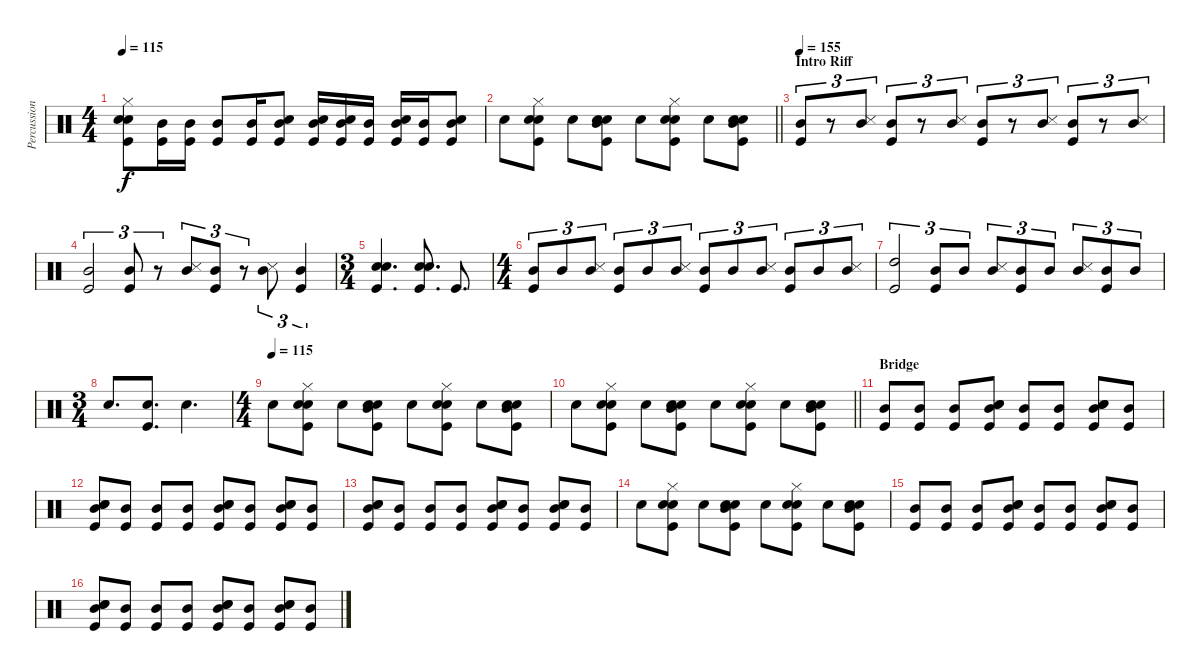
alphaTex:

\track ("Percussions" "Percussion") {instrument percussion}
\staff {score}
\articulation defaults
\ts (4 4)
\tempo 115
\clef neutral
\ks c
("Hi-Hat (closed)" "Snare (hit) 2" "Electric Snare (hit)" "Kick (hit)").8{dy f} ("Mid Tom (hit)" "Kick (hit)").16 ("Mid Tom (hit)" "Kick (hit)").16 ("Mid Tom (hit)" "Kick (hit)").8 ("Mid Tom (hit)" "Kick (hit)").16 ("Snare (hit) 2" "Mid Tom (hit)" "Kick (hit)").8 ("Snare (hit) 2" "Mid Tom (hit)" "Kick (hit)").16 ("Snare (hit) 2" "Mid Tom (hit)" "Kick (hit)").16 ("Mid Tom (hit)" "Kick (hit)").16 ("Snare (hit) 2" "Mid Tom (hit)" "Kick (hit)").16 ("Mid Tom (hit)" "Kick (hit)").16 ("Snare (hit) 2" "Mid Tom (hit)" "Kick (hit)").8 |
\barLineRight lightlight "Snare (hit) 2".8
("Hi-Hat (closed)" "Snare (hit) 2" "Electric Snare (hit)" "Kick (hit)").8 "Snare (hit) 2".8 ("Mid Tom (hit)" "Snare (hit) 2" "Electric Snare (hit)" "Kick (hit)").8 "Snare (hit) 2".8 ("Hi-Hat (closed)" "Snare (hit) 2" "Electric Snare (hit)" "Kick (hit)").8 "Snare (hit) 2".8 ("Mid Tom (hit)" "Snare (hit) 2" "Electric Snare (hit)" "Kick (hit)").8 |
\section ("" "Intro Riff")
\tempo 155
("Mid Tom (hit)" "Kick (hit)").8{tu (3 2)} r.8{tu (3 2)} ("Snare (side stick) 3" "Mid Tom (hit)").8{tu (3 2)} ("Mid Tom (hit)" "Kick (hit)").8{tu (3 2)} r.8{tu (3 2)} ("Snare (side stick) 3" "Mid Tom (hit)").8{tu (3 2)} ("Mid Tom (hit)" "Kick (hit)").8{tu (3 2)} r.8{tu (3 2)} ("Snare (side stick) 3" "Mid Tom (hit)").8{tu (3 2)} ("Mid Tom (hit)" "Kick (hit)").8{tu (3 2)} r.8{tu (3 2)} ("Snare (side stick) 3" "Mid Tom (hit)").8{tu (3 2)} |
("Mid Tom (hit)" "Kick (hit)").2{tu (3 2)} ("Mid Tom (hit)" "Kick (hit)").8{tu (3 2)} r.8{tu (3 2)} ("Snare (side stick) 3" "Mid Tom (hit)").8{tu (3 2)} ("Mid Tom (hit)" "Kick (hit)").8{tu (3 2)} r.8{tu (3 2)} ("Snare (side stick) 3" "Mid Tom (hit)").8{tu (3 2)} ("Mid Tom (hit)" "Kick (hit)").4{tu (3 2)} |
\ts (3 4)
("Electric Snare (hit)" "Snare (hit) 2" "Kick (hit)").4{d} ("Electric Snare (hit)" "Snare (hit) 2" "Kick (hit)").8{d} "Kick (hit)".8{d} |
\ts (4 4)
("Mid Tom (hit)" "Kick (hit)").8{tu (3 2)} "Mid Tom (hit)".8{tu (3 2)} ("Snare (side stick) 3" "Mid Tom (hit)").8{tu (3 2)} ("Mid Tom (hit)" "Kick (hit)").8{tu (3 2)} "Mid Tom (hit)".8{tu (3 2)} ("Snare (side stick) 3" "Mid Tom (hit)").8{tu (3 2)} ("Mid Tom (hit)" "Kick (hit)").8{tu (3 2)} "Mid Tom (hit)".8{tu (3 2)} ("Snare (side stick) 3" "Mid Tom (hit)").8{tu (3 2)} ("Mid Tom (hit)" "Kick (hit)").8{tu (3 2)} "Mid Tom (hit)".8{tu (3 2)} ("Snare (side stick) 3" "Mid Tom (hit)").8{tu (3 2)} |
("High Tom (hit)" "Kick (hit)").2{tu (3 2)} ("Mid Tom (hit)" "Kick (hit)").8{tu (3 2)} "Mid Tom (hit)".8{tu (3 2)} ("Snare (side stick) 3" "Mid Tom (hit)").8{tu (3 2)} ("Mid Tom (hit)" "Kick (hit)").8{tu (3 2)} "Mid Tom (hit)".8{tu (3 2)} ("Snare (side stick) 3" "Mid Tom (hit)").8{tu (3 2)} ("Mid Tom (hit)" "Kick (hit)").8{tu (3 2)} "Mid Tom (hit)".8{tu (3 2)} |
\ts (3 4)
"Snare (hit) 2".8{d} ("Electric Snare (hit)" "Kick (hit)").8{d} "Snare (hit) 2".4{d} |
\ts (4 4)
\tempo (115)
"Snare (hit) 2".8 ("Hi-Hat (closed)" "Snare (hit) 2" "Electric Snare (hit)" "Kick (hit)").8 "Snare (hit) 2".8 ("Mid Tom (hit)" "Snare (hit) 2" "Electric Snare (hit)" "Kick (hit)").8 "Snare (hit) 2".8 ("Hi-Hat (closed)" "Snare (hit) 2" "Electric Snare (hit)" "Kick (hit)").8 "Snare (hit) 2".8 ("Mid Tom (hit)" "Snare (hit) 2" "Electric Snare (hit)" "Kick (hit)").8 |
\barLineRight lightlight "Snare (hit) 2".8
("Hi-Hat (closed)" "Snare (hit) 2" "Electric Snare (hit)" "Kick (hit)").8 "Snare (hit) 2".8 ("Mid Tom (hit)" "Snare (hit) 2" "Electric Snare (hit)" "Kick (hit)").8 "Snare (hit) 2".8 ("Hi-Hat (closed)" "Snare (hit) 2" "Electric Snare (hit)" "Kick (hit)").8 "Snare (hit) 2".8 ("Mid Tom (hit)" "Snare (hit) 2" "Electric Snare (hit)" "Kick (hit)").8 |
\section ("" "Bridge")
("Mid Tom (hit)" "Kick (hit)").8 ("Mid Tom (hit)" "Kick (hit)").8 ("Mid Tom (hit)" "Kick (hit)").8 ("Mid Tom (hit)" "Snare (hit) 2" "Electric Snare (hit)" "Kick (hit)").8 ("Mid Tom (hit)" "Kick (hit)").8 ("Mid Tom (hit)" "Kick (hit)").8 ("Mid Tom (hit)" "Snare (hit) 2" "Electric Snare (hit)" "Kick (hit)").8 ("Mid Tom (hit)" "Kick (hit)").8 |
("Mid Tom (hit)" "Snare (hit) 2" "Electric Snare (hit)" "Kick (hit)").8 ("Mid Tom (hit)" "Kick (hit)").8 ("Mid Tom (hit)" "Kick (hit)").8 ("Mid Tom (hit)" "Kick (hit)").8 ("Mid Tom (hit)" "Snare (hit) 2" "Electric Snare (hit)" "Kick (hit)").8 ("Mid Tom (hit)" "Kick (hit)").8 ("Mid Tom (hit)" "Snare (hit) 2" "Electric Snare (hit)" "Kick (hit)").8 ("Mid Tom (hit)" "Kick (hit)").8 |
("Mid Tom (hit)" "Snare (hit) 2" "Electric Snare (hit)" "Kick (hit)").8 ("Mid Tom (hit)" "Kick (hit)").8 ("Mid Tom (hit)" "Kick (hit)").8 ("Mid Tom (hit)" "Kick (hit)").8 ("Mid Tom (hit)" "Snare (hit) 2" "Electric Snare (hit)" "Kick (hit)").8 ("Mid Tom (hit)" "Kick (hit)").8 ("Mid Tom (hit)" "Snare (hit) 2" "Electric Snare (hit)" "Kick (hit)").8 ("Mid Tom (hit)" "Kick (hit)").8 |
"Snare (hit) 2".8 ("Hi-Hat (closed)" "Snare (hit) 2" "Electric Snare (hit)" "Kick (hit)").8 "Snare (hit) 2".8 ("Mid Tom (hit)" "Snare (hit) 2" "Electric Snare (hit)" "Kick (hit)").8 "Snare (hit) 2".8 ("Hi-Hat (closed)" "Snare (hit) 2" "Electric Snare (hit)" "Kick (hit)").8 "Snare (hit) 2".8 ("Mid Tom (hit)" "Snare (hit) 2" "Electric Snare (hit)" "Kick (hit)").8 |
("Mid Tom (hit)" "Kick (hit)").8 ("Mid Tom (hit)" "Kick (hit)").8 ("Mid Tom (hit)" "Kick (hit)").8 ("Mid Tom (hit)" "Snare (hit) 2" "Electric Snare (hit)" "Kick (hit)").8 ("Mid Tom (hit)" "Kick (hit)").8 ("Mid Tom (hit)" "Kick (hit)").8 ("Mid Tom (hit)" "Snare (hit) 2" "Electric Snare (hit)" "Kick (hit)").8 ("Mid Tom (hit)" "Kick (hit)").8 |
("Mid Tom (hit)" "Snare (hit) 2" "Electric Snare (hit)" "Kick (hit)").8 ("Mid Tom (hit)" "Kick (hit)").8 ("Mid Tom (hit)" "Kick (hit)").8 ("Mid Tom (hit)" "Kick (hit)").8 ("Mid Tom (hit)" "Snare (hit) 2" "Electric Snare (hit)" "Kick (hit)").8 ("Mid Tom (hit)" "Kick (hit)").8 ("Mid Tom (hit)" "Snare (hit) 2" "Electric Snare (hit)" "Kick (hit)").8 ("Mid Tom (hit)" "Kick (hit)").8
